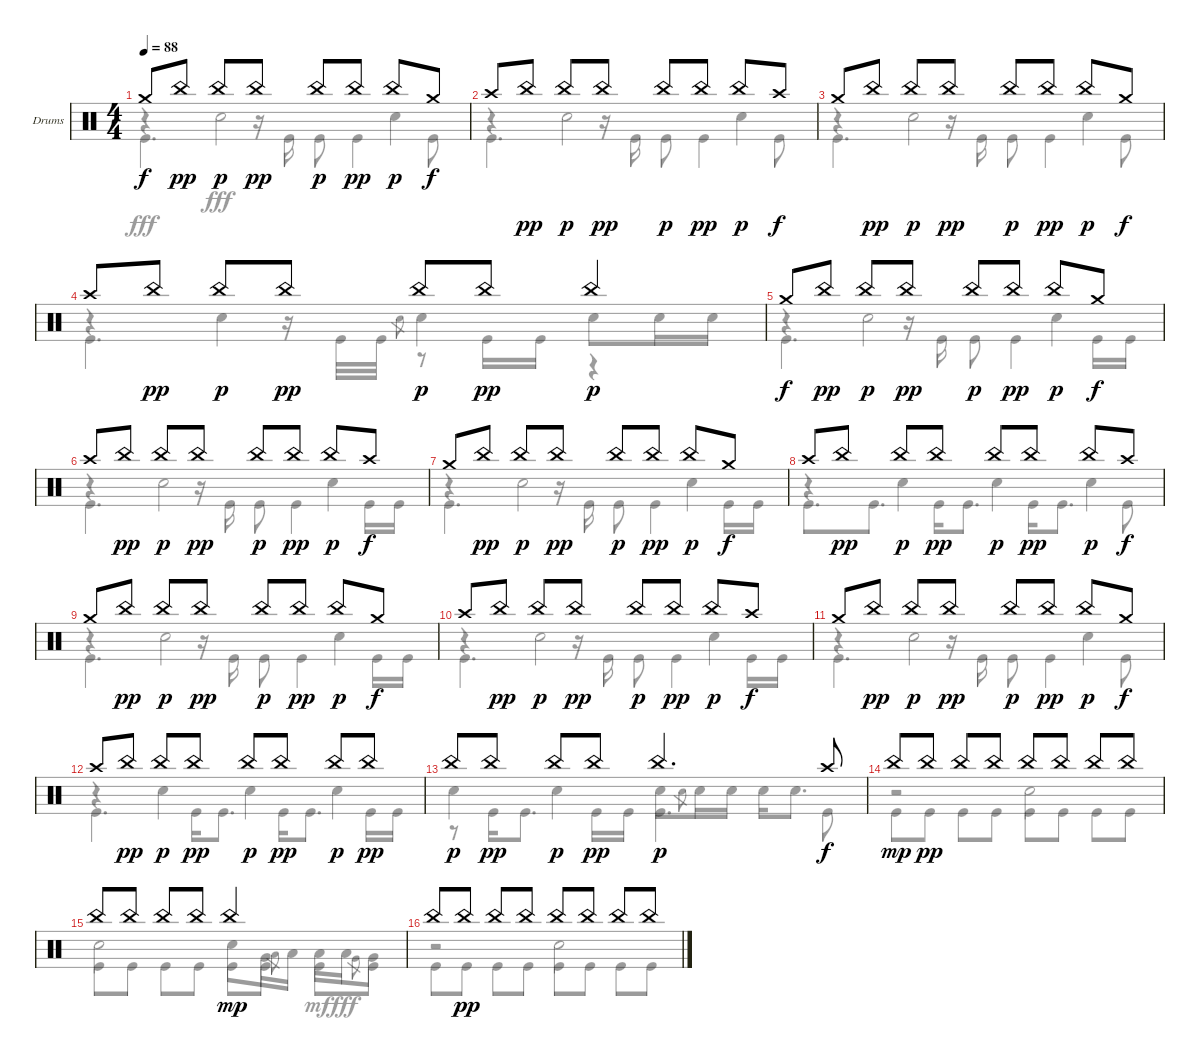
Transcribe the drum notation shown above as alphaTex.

\defaultSystemsLayout 4
\bracketExtendMode groupsimilarinstruments
\firstSystemTrackNameOrientation horizontal
\otherSystemsTrackNameOrientation horizontal
\track ("Drumkit" "Drums") {instrument percussion}
\staff {score}
\articulation defaults
\voice
\ts (4 4)
\tempo 88
\clef neutral
\ks c "Crash medium (hit)".8{dy f} "China (hit)".8{dy pp} "China (hit)".8{dy p} "China (hit)".8{dy pp} "China (hit)".8{dy p} "China (hit)".8{dy pp} "China (hit)".8{dy p} "Crash medium (hit)".8{dy f}
|
"Crash high (hit)".8 "China (hit)".8{dy pp} "China (hit)".8{dy p} "China (hit)".8{dy pp} "China (hit)".8{dy p} "China (hit)".8{dy pp} "China (hit)".8{dy p} "Crash high (hit)".8{dy f} |
"Crash medium (hit)".8 "China (hit)".8{dy pp} "China (hit)".8{dy p} "China (hit)".8{dy pp} "China (hit)".8{dy p} "China (hit)".8{dy pp} "China (hit)".8{dy p} "Crash medium (hit)".8{dy f} |
"Crash high (hit)".8 "China (hit)".8{dy pp} "China (hit)".8{dy p} "China (hit)".8{dy pp} "China (hit)".8{dy p} "China (hit)".8{dy pp} "China (hit)".4{dy p} |
"Crash medium (hit)".8{dy f} "China (hit)".8{dy pp} "China (hit)".8{dy p} "China (hit)".8{dy pp} "China (hit)".8{dy p} "China (hit)".8{dy pp} "China (hit)".8{dy p} "Crash medium (hit)".8{dy f} |
"Crash high (hit)".8 "China (hit)".8{dy pp} "China (hit)".8{dy p} "China (hit)".8{dy pp} "China (hit)".8{dy p} "China (hit)".8{dy pp} "China (hit)".8{dy p} "Crash high (hit)".8{dy f} |
"Crash medium (hit)".8 "China (hit)".8{dy pp} "China (hit)".8{dy p} "China (hit)".8{dy pp} "China (hit)".8{dy p} "China (hit)".8{dy pp} "China (hit)".8{dy p} "Crash medium (hit)".8{dy f} |
"Crash high (hit)".8 "China (hit)".8{dy pp} "China (hit)".8{dy p} "China (hit)".8{dy pp} "China (hit)".8{dy p} "China (hit)".8{dy pp} "China (hit)".8{dy p} "Crash high (hit)".8{dy f} |
"Crash medium (hit)".8 "China (hit)".8{dy pp} "China (hit)".8{dy p} "China (hit)".8{dy pp} "China (hit)".8{dy p} "China (hit)".8{dy pp} "China (hit)".8{dy p} "Crash medium (hit)".8{dy f} |
"Crash high (hit)".8 "China (hit)".8{dy pp} "China (hit)".8{dy p} "China (hit)".8{dy pp} "China (hit)".8{dy p} "China (hit)".8{dy pp} "China (hit)".8{dy p} "Crash high (hit)".8{dy f} |
"Crash medium (hit)".8 "China (hit)".8{dy pp} "China (hit)".8{dy p} "China (hit)".8{dy pp} "China (hit)".8{dy p} "China (hit)".8{dy pp} "China (hit)".8{dy p} "Crash medium (hit)".8{dy f} |
"Crash high (hit)".8 "China (hit)".8{dy pp} "China (hit)".8{dy p} "China (hit)".8{dy pp} "China (hit)".8{dy p} "China (hit)".8{dy pp} "China (hit)".8{dy p} "China (hit)".8{dy pp} |
"China (hit)".8{dy p} "China (hit)".8{dy pp} "China (hit)".8{dy p} "China (hit)".8{dy pp} "China (hit)".4{d dy p} "Crash high (hit)".8{dy f} |
"China (hit)".8{dy mp} "China (hit)".8{dy pp} "China (hit)".8 "China (hit)".8 "China (hit)".8 "China (hit)".8 "China (hit)".8 "China (hit)".8 |
"China (hit)".8 "China (hit)".8 "China (hit)".8 "China (hit)".8 "China (hit)".2{dy mp} |
"China (hit)".8 "China (hit)".8{dy pp} "China (hit)".8 "China (hit)".8 "China (hit)".8 "China (hit)".8 "China (hit)".8 "China (hit)".8
\voice
\clef neutral
\ottava regular
\simile none
\ks c
r.4{dy fff} "Snare (hit) 2".2 "Snare (hit) 2".4 |
r.4 "Snare (hit) 2".2 "Snare (hit) 2".4 |
r.4 "Snare (hit) 2".2 "Snare (hit) 2".4 |
r.4 "Snare (hit) 2".4 "Snare (hit) 2".8{gr} "Snare (hit) 2".4 "Snare (hit) 2".8 "Snare (hit) 2".16 "Snare (hit) 2".16 |
r.4 "Snare (hit) 2".2 "Snare (hit) 2".4 |
r.4 "Snare (hit) 2".2 "Snare (hit) 2".4 |
r.4 "Snare (hit) 2".2 "Snare (hit) 2".4 |
r.4 "Snare (hit) 2".4 "Snare (hit) 2".4 "Snare (hit) 2".4 |
r.4 "Snare (hit) 2".2 "Snare (hit) 2".4 |
r.4 "Snare (hit) 2".2 "Snare (hit) 2".4 |
r.4 "Snare (hit) 2".2 "Snare (hit) 2".4 |
r.4 "Snare (hit) 2".4 "Snare (hit) 2".4 "Snare (hit) 2".4 |
"Snare (hit) 2".4 "Snare (hit) 2".4 "Snare (hit) 2".8 "Snare (hit) 2".8{gr} "Snare (hit) 2".16 "Snare (hit) 2".16 "Snare (hit) 2".16 "Snare (hit) 2".8{d} |
r.2 "Snare (hit) 2".2 |
"Snare (hit) 2".2 "Snare (hit) 2".8 "Very Low Tom (hit)".16 "Low Tom (hit)".8{gr} "Low Tom (hit)".16 "Low Tom (hit)".16{dy mf} "Low Tom (hit)".16{dy fff} "Very Low Tom (hit)".8{gr} "Very Low Tom (hit)".8 |
r.2 "Snare (hit) 2".2
\voice
\clef neutral
\ottava regular
\simile none
\ks c "Kick (hit)".4{d dy fff}
r.16 "Kick (hit)".16 "Kick (hit)".8 "Kick (hit)".4 "Kick (hit)".8 |
"Kick (hit)".4{d} r.16 "Kick (hit)".16 "Kick (hit)".8 "Kick (hit)".4 "Kick (hit)".8 |
"Kick (hit)".4{d} r.16 "Kick (hit)".16 "Kick (hit)".8 "Kick (hit)".4 "Kick (hit)".8 |
"Kick (hit)".4{d} r.16 "Kick (hit)".32 "Kick (hit)".32 r.8 "Kick (hit)".16 "Kick (hit)".16 r.4 |
"Kick (hit)".4{d} r.16 "Kick (hit)".16 "Kick (hit)".8 "Kick (hit)".4 "Kick (hit)".16 "Kick (hit)".16 |
"Kick (hit)".4{d} r.16 "Kick (hit)".16 "Kick (hit)".8 "Kick (hit)".4 "Kick (hit)".16 "Kick (hit)".16 |
"Kick (hit)".4{d} r.16 "Kick (hit)".16 "Kick (hit)".8 "Kick (hit)".4 "Kick (hit)".16 "Kick (hit)".16 |
"Kick (hit)".8{d} "Kick (hit)".8{d} "Kick (hit)".16 "Kick (hit)".8{d} "Kick (hit)".16 "Kick (hit)".8{d} "Kick (hit)".8 |
"Kick (hit)".4{d} r.16 "Kick (hit)".16 "Kick (hit)".8 "Kick (hit)".4 "Kick (hit)".16 "Kick (hit)".16 |
"Kick (hit)".4{d} r.16 "Kick (hit)".16 "Kick (hit)".8 "Kick (hit)".4 "Kick (hit)".16 "Kick (hit)".16 |
"Kick (hit)".4{d} r.16 "Kick (hit)".16 "Kick (hit)".8 "Kick (hit)".4 "Kick (hit)".8 |
"Kick (hit)".4{d} "Kick (hit)".16 "Kick (hit)".8{d} "Kick (hit)".16 "Kick (hit)".8{d} "Kick (hit)".16 "Kick (hit)".16 |
r.8 "Kick (hit)".16 "Kick (hit)".8{d} "Kick (hit)".16 "Kick (hit)".16 "Kick (hit)".4{d} "Kick (hit)".8 |
"Kick (hit)".8 "Kick (hit)".8 "Kick (hit)".8 "Kick (hit)".8 "Kick (hit)".8 "Kick (hit)".8 "Kick (hit)".8 "Kick (hit)".8 |
"Kick (hit)".8 "Kick (hit)".8 "Kick (hit)".8 "Kick (hit)".8 "Kick (hit)".8 "Kick (hit)".8 "Kick (hit)".8 "Kick (hit)".8 |
"Kick (hit)".8 "Kick (hit)".8 "Kick (hit)".8 "Kick (hit)".8 "Kick (hit)".8 "Kick (hit)".8 "Kick (hit)".8 "Kick (hit)".8
